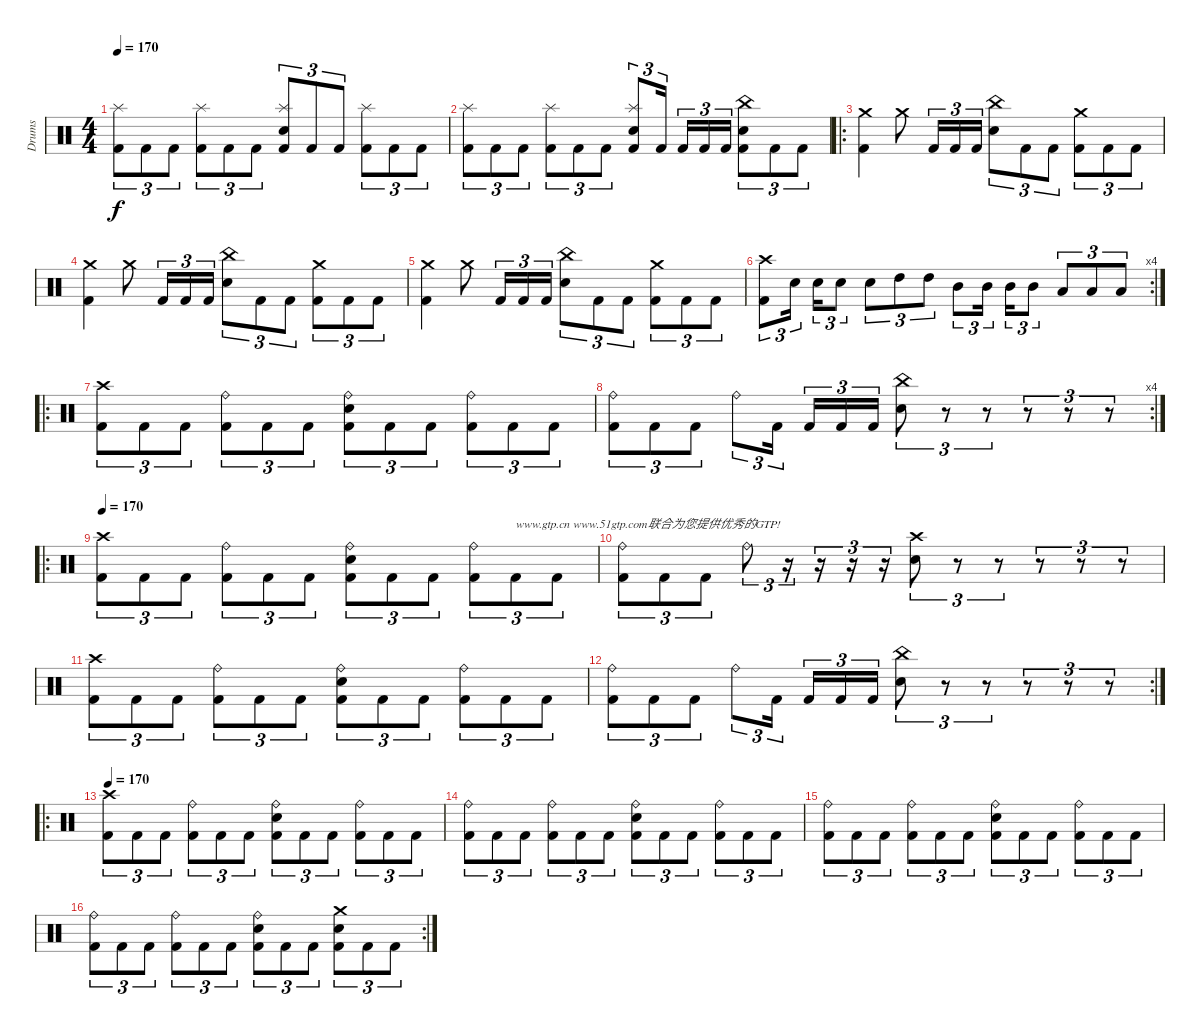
\track ("Drums" "Drums") {instrument percussion}
\staff {score}
\articulation defaults
\ts (4 4)
\tempo 170
\clef neutral
\ks c
("Kick (hit) 2" "Splash (hit)").8{tu (3 2) dy f} "Kick (hit) 2".8{tu (3 2)} "Kick (hit) 2".8{tu (3 2)} ("Kick (hit) 2" "Splash (hit)").8{tu (3 2)} "Kick (hit) 2".8{tu (3 2)} "Kick (hit) 2".8{tu (3 2)} ("Kick (hit) 2" "Electric Snare (hit)" "Splash (hit)").8{tu (3 2)} "Kick (hit) 2".8{tu (3 2)} "Kick (hit) 2".8{tu (3 2)} ("Kick (hit) 2" "Splash (hit)").8{tu (3 2)} "Kick (hit) 2".8{tu (3 2)} "Kick (hit) 2".8{tu (3 2)} |
("Kick (hit) 2" "Splash (hit)").8{tu (3 2)} "Kick (hit) 2".8{tu (3 2)} "Kick (hit) 2".8{tu (3 2)} ("Kick (hit) 2" "Splash (hit)").8{tu (3 2)} "Kick (hit) 2".8{tu (3 2)} "Kick (hit) 2".8{tu (3 2)} ("Kick (hit) 2" "Electric Snare (hit)" "Splash (hit)").8{tu (3 2)} "Kick (hit) 2".16{tu (3 2) beam splitsecondary} "Kick (hit) 2".16{tu (3 2)} "Kick (hit) 2".16{tu (3 2)} "Kick (hit) 2".16{tu (3 2)} ("Kick (hit) 2" "Electric Snare (hit)" "China (hit)").8{tu (3 2)} "Kick (hit) 2".8{tu (3 2)} "Kick (hit) 2".8{tu (3 2)} |
\ro
("Kick (hit) 2" "Crash medium (hit)").4 "Crash medium (hit)".8 "Kick (hit) 2".16{tu (3 2)} "Kick (hit) 2".16{tu (3 2)} "Kick (hit) 2".16{tu (3 2)} ("Electric Snare (hit)" "China (hit)").8{tu (3 2)} "Kick (hit) 2".8{tu (3 2)} "Kick (hit) 2".8{tu (3 2)} ("Kick (hit) 2" "Crash medium (hit)").8{tu (3 2)} "Kick (hit) 2".8{tu (3 2)} "Kick (hit) 2".8{tu (3 2)} |
("Kick (hit) 2" "Crash medium (hit)").4 "Crash medium (hit)".8 "Kick (hit) 2".16{tu (3 2)} "Kick (hit) 2".16{tu (3 2)} "Kick (hit) 2".16{tu (3 2)} ("Electric Snare (hit)" "China (hit)").8{tu (3 2)} "Kick (hit) 2".8{tu (3 2)} "Kick (hit) 2".8{tu (3 2)} ("Kick (hit) 2" "Crash medium (hit)").8{tu (3 2)} "Kick (hit) 2".8{tu (3 2)} "Kick (hit) 2".8{tu (3 2)} |
("Kick (hit) 2" "Crash medium (hit)").4 "Crash medium (hit)".8 "Kick (hit) 2".16{tu (3 2)} "Kick (hit) 2".16{tu (3 2)} "Kick (hit) 2".16{tu (3 2)} ("Electric Snare (hit)" "China (hit)").8{tu (3 2)} "Kick (hit) 2".8{tu (3 2)} "Kick (hit) 2".8{tu (3 2)} ("Kick (hit) 2" "Crash medium (hit)").8{tu (3 2)} "Kick (hit) 2".8{tu (3 2)} "Kick (hit) 2".8{tu (3 2)} |
\rc 4
("Kick (hit) 2" "Crash high (hit)").8{tu (3 2)} "Electric Snare (hit)".16{tu (3 2) beam splitsecondary} "Electric Snare (hit)".16{tu (3 2)} "Electric Snare (hit)".8{tu (3 2)} "Electric Snare (hit)".8{tu (3 2)} "High Tom (hit)".8{tu (3 2)} "High Tom (hit)".8{tu (3 2)} "Mid Tom (hit)".8{tu (3 2)} "Mid Tom (hit)".16{tu (3 2) beam splitsecondary} "Mid Tom (hit)".16{tu (3 2)} "Mid Tom (hit)".8{tu (3 2)} "Low Tom (hit)".8{tu (3 2)} "Low Tom (hit)".8{tu (3 2)} "Low Tom (hit)".8{tu (3 2)} |
\ro
("Kick (hit) 2" "Crash high (hit)").8{tu (3 2)} "Kick (hit) 2".8{tu (3 2)} "Kick (hit) 2".8{tu (3 2)} ("Kick (hit) 2" "Ride (bell)").8{tu (3 2)} "Kick (hit) 2".8{tu (3 2)} "Kick (hit) 2".8{tu (3 2)} ("Kick (hit) 2" "Electric Snare (hit)" "Ride (bell)").8{tu (3 2)} "Kick (hit) 2".8{tu (3 2)} "Kick (hit) 2".8{tu (3 2)} ("Kick (hit) 2" "Ride (bell)").8{tu (3 2)} "Kick (hit) 2".8{tu (3 2)} "Kick (hit) 2".8{tu (3 2)} |
\rc 4
("Kick (hit) 2" "Ride (bell)").8{tu (3 2)} "Kick (hit) 2".8{tu (3 2)} "Kick (hit) 2".8{tu (3 2)} "Ride (bell)".8{tu (3 2)} "Kick (hit) 2".16{tu (3 2) beam splitsecondary} "Kick (hit) 2".16{tu (3 2)} "Kick (hit) 2".16{tu (3 2)} "Kick (hit) 2".16{tu (3 2)} ("Electric Snare (hit)" "China (hit)").8{tu (3 2)} r.8{tu (3 2)} r.8{tu (3 2)} r.8{tu (3 2)} r.8{tu (3 2)} r.8{tu (3 2)} |
\ro
\tempo 170
("Kick (hit) 2" "Crash high (hit)").8{tu (3 2)} "Kick (hit) 2".8{tu (3 2)} "Kick (hit) 2".8{tu (3 2)} ("Kick (hit) 2" "Ride (bell)").8{tu (3 2)} "Kick (hit) 2".8{tu (3 2)} "Kick (hit) 2".8{tu (3 2)} ("Kick (hit) 2" "Electric Snare (hit)" "Ride (bell)").8{tu (3 2)} "Kick (hit) 2".8{tu (3 2)} "Kick (hit) 2".8{tu (3 2)} ("Kick (hit) 2" "Ride (bell)").8{tu (3 2)} "Kick (hit) 2".8{tu (3 2) txt "www.gtp.cn www.51gtp.com联合为您提供优秀的GTP!"} "Kick (hit) 2".8{tu (3 2)} |
("Kick (hit) 2" "Ride (bell)").8{tu (3 2)} "Kick (hit) 2".8{tu (3 2)} "Kick (hit) 2".8{tu (3 2)} "Ride (bell)".8{tu (3 2)} r.16{tu (3 2)} r.16{tu (3 2)} r.16{tu (3 2)} r.16{tu (3 2)} ("Electric Snare (hit)" "Crash high (hit)").8{tu (3 2)} r.8{tu (3 2)} r.8{tu (3 2)} r.8{tu (3 2)} r.8{tu (3 2)} r.8{tu (3 2)} |
("Kick (hit) 2" "Crash high (hit)").8{tu (3 2)} "Kick (hit) 2".8{tu (3 2)} "Kick (hit) 2".8{tu (3 2)} ("Kick (hit) 2" "Ride (bell)").8{tu (3 2)} "Kick (hit) 2".8{tu (3 2)} "Kick (hit) 2".8{tu (3 2)} ("Kick (hit) 2" "Electric Snare (hit)" "Ride (bell)").8{tu (3 2)} "Kick (hit) 2".8{tu (3 2)} "Kick (hit) 2".8{tu (3 2)} ("Kick (hit) 2" "Ride (bell)").8{tu (3 2)} "Kick (hit) 2".8{tu (3 2)} "Kick (hit) 2".8{tu (3 2)} |
\rc 2
("Kick (hit) 2" "Ride (bell)").8{tu (3 2)} "Kick (hit) 2".8{tu (3 2)} "Kick (hit) 2".8{tu (3 2)} "Ride (bell)".8{tu (3 2)} "Kick (hit) 2".16{tu (3 2) beam splitsecondary} "Kick (hit) 2".16{tu (3 2)} "Kick (hit) 2".16{tu (3 2)} "Kick (hit) 2".16{tu (3 2)} ("Electric Snare (hit)" "China (hit)").8{tu (3 2)} r.8{tu (3 2)} r.8{tu (3 2)} r.8{tu (3 2)} r.8{tu (3 2)} r.8{tu (3 2)} |
\ro
\tempo 170
("Kick (hit) 2" "Crash high (hit)").8{tu (3 2)} "Kick (hit) 2".8{tu (3 2)} "Kick (hit) 2".8{tu (3 2)} ("Kick (hit) 2" "Ride (bell)").8{tu (3 2)} "Kick (hit) 2".8{tu (3 2)} "Kick (hit) 2".8{tu (3 2)} ("Kick (hit) 2" "Electric Snare (hit)" "Ride (bell)").8{tu (3 2)} "Kick (hit) 2".8{tu (3 2)} "Kick (hit) 2".8{tu (3 2)} ("Kick (hit) 2" "Ride (bell)").8{tu (3 2)} "Kick (hit) 2".8{tu (3 2)} "Kick (hit) 2".8{tu (3 2)} |
("Kick (hit) 2" "Ride (bell)").8{tu (3 2)} "Kick (hit) 2".8{tu (3 2)} "Kick (hit) 2".8{tu (3 2)} ("Kick (hit) 2" "Ride (bell)").8{tu (3 2)} "Kick (hit) 2".8{tu (3 2)} "Kick (hit) 2".8{tu (3 2)} ("Kick (hit) 2" "Electric Snare (hit)" "Ride (bell)").8{tu (3 2)} "Kick (hit) 2".8{tu (3 2)} "Kick (hit) 2".8{tu (3 2)} ("Kick (hit) 2" "Ride (bell)").8{tu (3 2)} "Kick (hit) 2".8{tu (3 2)} "Kick (hit) 2".8{tu (3 2)} |
("Kick (hit) 2" "Ride (bell)").8{tu (3 2)} "Kick (hit) 2".8{tu (3 2)} "Kick (hit) 2".8{tu (3 2)} ("Kick (hit) 2" "Ride (bell)").8{tu (3 2)} "Kick (hit) 2".8{tu (3 2)} "Kick (hit) 2".8{tu (3 2)} ("Kick (hit) 2" "Electric Snare (hit)" "Ride (bell)").8{tu (3 2)} "Kick (hit) 2".8{tu (3 2)} "Kick (hit) 2".8{tu (3 2)} ("Kick (hit) 2" "Ride (bell)").8{tu (3 2)} "Kick (hit) 2".8{tu (3 2)} "Kick (hit) 2".8{tu (3 2)} |
\rc 2
("Kick (hit) 2" "Ride (bell)").8{tu (3 2)} "Kick (hit) 2".8{tu (3 2)} "Kick (hit) 2".8{tu (3 2)} ("Kick (hit) 2" "Ride (bell)").8{tu (3 2)} "Kick (hit) 2".8{tu (3 2)} "Kick (hit) 2".8{tu (3 2)} ("Kick (hit) 2" "Electric Snare (hit)" "Ride (bell)").8{tu (3 2)} "Kick (hit) 2".8{tu (3 2)} "Kick (hit) 2".8{tu (3 2)} ("Kick (hit) 2" "Electric Snare (hit)" "Crash medium (hit)").8{tu (3 2)} "Kick (hit) 2".8{tu (3 2)} "Kick (hit) 2".8{tu (3 2)}
